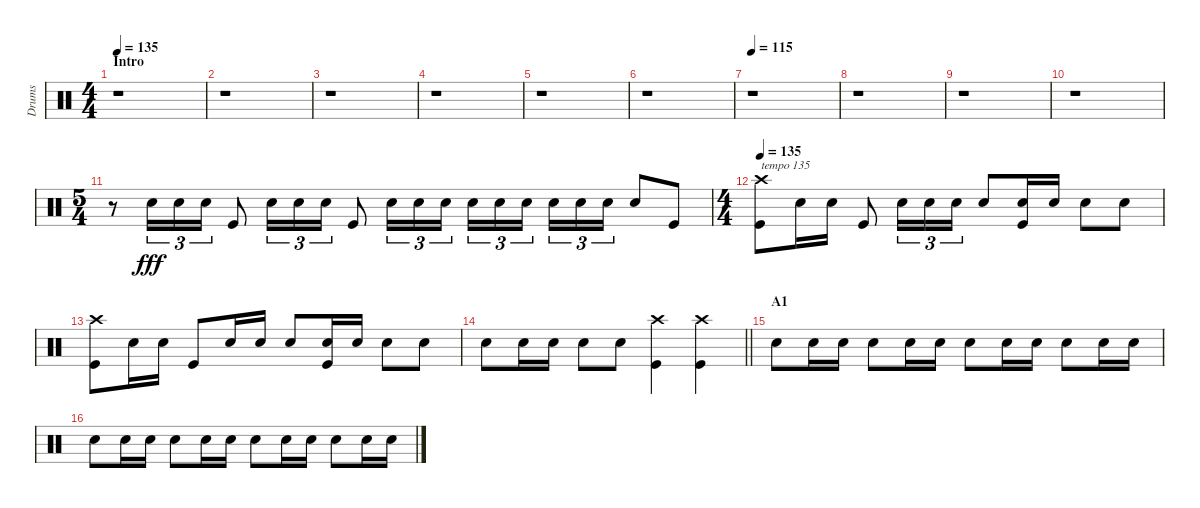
\track ("Drums" "Drums") {instrument percussion}
\staff {score}
\articulation defaults
\ts (4 4)
\section ("" "Intro")
\tempo 135
\tempo 100
\tempo 135
\clef neutral
\ks c
r.1{dy fff} |
r.1 |
r.1 |
r.1 |
r.1 |
r.1 |
\tempo 115
r.1 |
r.1 |
r.1 |
r.1 |
\ts (5 4)
r.8 "Snare (hit) 2".16{tu (3 2)} "Snare (hit) 2".16{tu (3 2)} "Snare (hit) 2".16{tu (3 2)} "Kick (hit)".8 "Snare (hit) 2".16{tu (3 2)} "Snare (hit) 2".16{tu (3 2)} "Snare (hit) 2".16{tu (3 2)} "Kick (hit)".8 "Snare (hit) 2".16{tu (3 2)} "Snare (hit) 2".16{tu (3 2)} "Snare (hit) 2".16{tu (3 2)} "Snare (hit) 2".16{tu (3 2)} "Snare (hit) 2".16{tu (3 2)} "Snare (hit) 2".16{tu (3 2) beam splitsecondary} "Snare (hit) 2".16{tu (3 2)} "Snare (hit) 2".16{tu (3 2)} "Snare (hit) 2".16{tu (3 2)} "Snare (hit) 2".8 "Kick (hit)".8 |
\ts (4 4)
\tempo 135
("Crash high (hit)" "Kick (hit)").8{txt "tempo 135"} "Snare (hit) 2".16 "Snare (hit) 2".16 "Kick (hit)".8 "Snare (hit) 2".16{tu (3 2)} "Snare (hit) 2".16{tu (3 2)} "Snare (hit) 2".16{tu (3 2)} "Snare (hit) 2".8 ("Snare (hit) 2" "Kick (hit)").16 "Snare (hit) 2".16 "Snare (hit) 2".8 "Snare (hit) 2".8 |
("Crash high (hit)" "Kick (hit)").8 "Snare (hit) 2".16 "Snare (hit) 2".16 "Kick (hit)".8 "Snare (hit) 2".16 "Snare (hit) 2".16 "Snare (hit) 2".8 ("Snare (hit) 2" "Kick (hit)").16 "Snare (hit) 2".16 "Snare (hit) 2".8 "Snare (hit) 2".8 |
\barLineRight lightlight "Snare (hit) 2".8 "Snare (hit) 2".16 "Snare (hit) 2".16 "Snare (hit) 2".8 "Snare (hit) 2".8
("Crash high (hit)" "Kick (hit)").4 ("Crash high (hit)" "Kick (hit)").4 |
\section ("" "A1")
"Snare (hit) 2".8 "Snare (hit) 2".16 "Snare (hit) 2".16 "Snare (hit) 2".8 "Snare (hit) 2".16 "Snare (hit) 2".16 "Snare (hit) 2".8 "Snare (hit) 2".16 "Snare (hit) 2".16 "Snare (hit) 2".8 "Snare (hit) 2".16 "Snare (hit) 2".16 |
"Snare (hit) 2".8 "Snare (hit) 2".16 "Snare (hit) 2".16 "Snare (hit) 2".8 "Snare (hit) 2".16 "Snare (hit) 2".16 "Snare (hit) 2".8 "Snare (hit) 2".16 "Snare (hit) 2".16 "Snare (hit) 2".8 "Snare (hit) 2".16 "Snare (hit) 2".16
